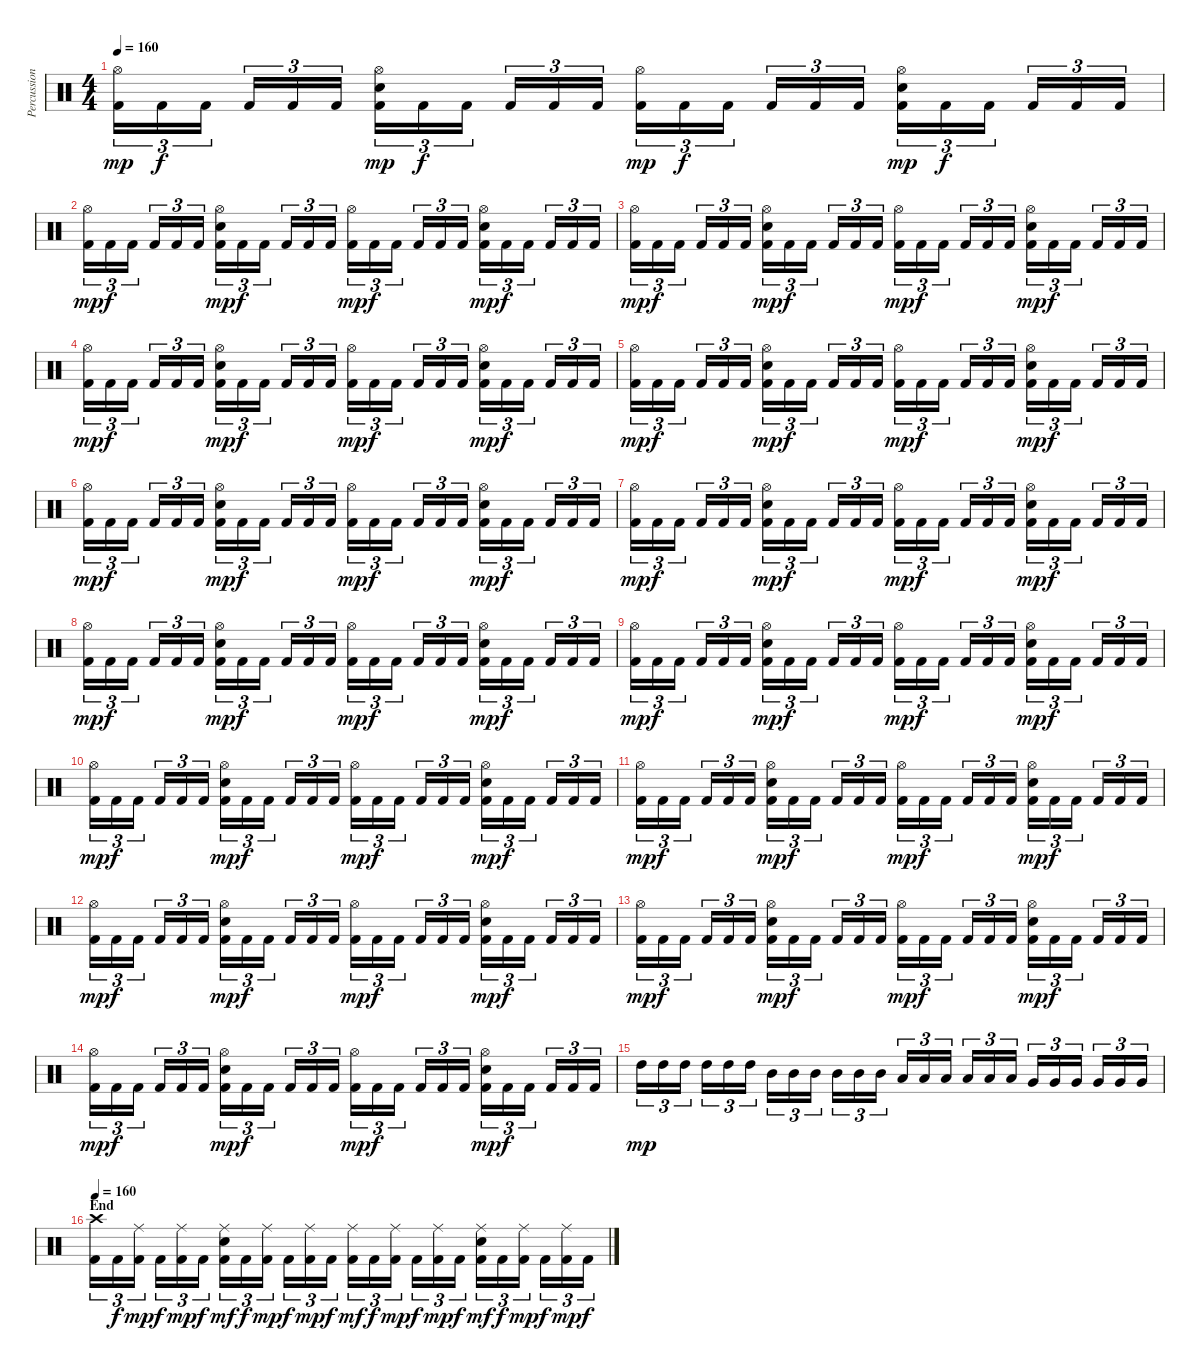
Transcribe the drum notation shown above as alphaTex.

\track ("Percussion" "Percussion") {instrument percussion}
\staff {score}
\articulation defaults
\ts (4 4)
\tempo 160
\clef neutral
\ks c
("Hi-Hat (open)" "Kick (hit) 2").16{tu (3 2) dy mp} "Kick (hit) 2".16{tu (3 2) dy f} "Kick (hit) 2".16{tu (3 2)} "Kick (hit) 2".16{tu (3 2)} "Kick (hit) 2".16{tu (3 2)} "Kick (hit) 2".16{tu (3 2)} ("Hi-Hat (open)" "Electric Snare (hit)" "Kick (hit) 2").16{tu (3 2) dy mp} "Kick (hit) 2".16{tu (3 2) dy f} "Kick (hit) 2".16{tu (3 2)} "Kick (hit) 2".16{tu (3 2)} "Kick (hit) 2".16{tu (3 2)} "Kick (hit) 2".16{tu (3 2)} ("Hi-Hat (open)" "Kick (hit) 2").16{tu (3 2) dy mp} "Kick (hit) 2".16{tu (3 2) dy f} "Kick (hit) 2".16{tu (3 2)} "Kick (hit) 2".16{tu (3 2)} "Kick (hit) 2".16{tu (3 2)} "Kick (hit) 2".16{tu (3 2)} ("Hi-Hat (open)" "Electric Snare (hit)" "Kick (hit) 2").16{tu (3 2) dy mp} "Kick (hit) 2".16{tu (3 2) dy f} "Kick (hit) 2".16{tu (3 2)} "Kick (hit) 2".16{tu (3 2)} "Kick (hit) 2".16{tu (3 2)} "Kick (hit) 2".16{tu (3 2)} |
("Hi-Hat (open)" "Kick (hit) 2").16{tu (3 2) dy mp} "Kick (hit) 2".16{tu (3 2) dy f} "Kick (hit) 2".16{tu (3 2)} "Kick (hit) 2".16{tu (3 2)} "Kick (hit) 2".16{tu (3 2)} "Kick (hit) 2".16{tu (3 2)} ("Hi-Hat (open)" "Electric Snare (hit)" "Kick (hit) 2").16{tu (3 2) dy mp} "Kick (hit) 2".16{tu (3 2) dy f} "Kick (hit) 2".16{tu (3 2)} "Kick (hit) 2".16{tu (3 2)} "Kick (hit) 2".16{tu (3 2)} "Kick (hit) 2".16{tu (3 2)} ("Hi-Hat (open)" "Kick (hit) 2").16{tu (3 2) dy mp} "Kick (hit) 2".16{tu (3 2) dy f} "Kick (hit) 2".16{tu (3 2)} "Kick (hit) 2".16{tu (3 2)} "Kick (hit) 2".16{tu (3 2)} "Kick (hit) 2".16{tu (3 2)} ("Hi-Hat (open)" "Electric Snare (hit)" "Kick (hit) 2").16{tu (3 2) dy mp} "Kick (hit) 2".16{tu (3 2) dy f} "Kick (hit) 2".16{tu (3 2)} "Kick (hit) 2".16{tu (3 2)} "Kick (hit) 2".16{tu (3 2)} "Kick (hit) 2".16{tu (3 2)} |
("Hi-Hat (open)" "Kick (hit) 2").16{tu (3 2) dy mp} "Kick (hit) 2".16{tu (3 2) dy f} "Kick (hit) 2".16{tu (3 2)} "Kick (hit) 2".16{tu (3 2)} "Kick (hit) 2".16{tu (3 2)} "Kick (hit) 2".16{tu (3 2)} ("Hi-Hat (open)" "Electric Snare (hit)" "Kick (hit) 2").16{tu (3 2) dy mp} "Kick (hit) 2".16{tu (3 2) dy f} "Kick (hit) 2".16{tu (3 2)} "Kick (hit) 2".16{tu (3 2)} "Kick (hit) 2".16{tu (3 2)} "Kick (hit) 2".16{tu (3 2)} ("Hi-Hat (open)" "Kick (hit) 2").16{tu (3 2) dy mp} "Kick (hit) 2".16{tu (3 2) dy f} "Kick (hit) 2".16{tu (3 2)} "Kick (hit) 2".16{tu (3 2)} "Kick (hit) 2".16{tu (3 2)} "Kick (hit) 2".16{tu (3 2)} ("Hi-Hat (open)" "Electric Snare (hit)" "Kick (hit) 2").16{tu (3 2) dy mp} "Kick (hit) 2".16{tu (3 2) dy f} "Kick (hit) 2".16{tu (3 2)} "Kick (hit) 2".16{tu (3 2)} "Kick (hit) 2".16{tu (3 2)} "Kick (hit) 2".16{tu (3 2)} |
("Hi-Hat (open)" "Kick (hit) 2").16{tu (3 2) dy mp} "Kick (hit) 2".16{tu (3 2) dy f} "Kick (hit) 2".16{tu (3 2)} "Kick (hit) 2".16{tu (3 2)} "Kick (hit) 2".16{tu (3 2)} "Kick (hit) 2".16{tu (3 2)} ("Hi-Hat (open)" "Electric Snare (hit)" "Kick (hit) 2").16{tu (3 2) dy mp} "Kick (hit) 2".16{tu (3 2) dy f} "Kick (hit) 2".16{tu (3 2)} "Kick (hit) 2".16{tu (3 2)} "Kick (hit) 2".16{tu (3 2)} "Kick (hit) 2".16{tu (3 2)} ("Hi-Hat (open)" "Kick (hit) 2").16{tu (3 2) dy mp} "Kick (hit) 2".16{tu (3 2) dy f} "Kick (hit) 2".16{tu (3 2)} "Kick (hit) 2".16{tu (3 2)} "Kick (hit) 2".16{tu (3 2)} "Kick (hit) 2".16{tu (3 2)} ("Hi-Hat (open)" "Electric Snare (hit)" "Kick (hit) 2").16{tu (3 2) dy mp} "Kick (hit) 2".16{tu (3 2) dy f} "Kick (hit) 2".16{tu (3 2)} "Kick (hit) 2".16{tu (3 2)} "Kick (hit) 2".16{tu (3 2)} "Kick (hit) 2".16{tu (3 2)} |
("Hi-Hat (open)" "Kick (hit) 2").16{tu (3 2) dy mp} "Kick (hit) 2".16{tu (3 2) dy f} "Kick (hit) 2".16{tu (3 2)} "Kick (hit) 2".16{tu (3 2)} "Kick (hit) 2".16{tu (3 2)} "Kick (hit) 2".16{tu (3 2)} ("Hi-Hat (open)" "Electric Snare (hit)" "Kick (hit) 2").16{tu (3 2) dy mp} "Kick (hit) 2".16{tu (3 2) dy f} "Kick (hit) 2".16{tu (3 2)} "Kick (hit) 2".16{tu (3 2)} "Kick (hit) 2".16{tu (3 2)} "Kick (hit) 2".16{tu (3 2)} ("Hi-Hat (open)" "Kick (hit) 2").16{tu (3 2) dy mp} "Kick (hit) 2".16{tu (3 2) dy f} "Kick (hit) 2".16{tu (3 2)} "Kick (hit) 2".16{tu (3 2)} "Kick (hit) 2".16{tu (3 2)} "Kick (hit) 2".16{tu (3 2)} ("Hi-Hat (open)" "Electric Snare (hit)" "Kick (hit) 2").16{tu (3 2) dy mp} "Kick (hit) 2".16{tu (3 2) dy f} "Kick (hit) 2".16{tu (3 2)} "Kick (hit) 2".16{tu (3 2)} "Kick (hit) 2".16{tu (3 2)} "Kick (hit) 2".16{tu (3 2)} |
("Hi-Hat (open)" "Kick (hit) 2").16{tu (3 2) dy mp} "Kick (hit) 2".16{tu (3 2) dy f} "Kick (hit) 2".16{tu (3 2)} "Kick (hit) 2".16{tu (3 2)} "Kick (hit) 2".16{tu (3 2)} "Kick (hit) 2".16{tu (3 2)} ("Hi-Hat (open)" "Electric Snare (hit)" "Kick (hit) 2").16{tu (3 2) dy mp} "Kick (hit) 2".16{tu (3 2) dy f} "Kick (hit) 2".16{tu (3 2)} "Kick (hit) 2".16{tu (3 2)} "Kick (hit) 2".16{tu (3 2)} "Kick (hit) 2".16{tu (3 2)} ("Hi-Hat (open)" "Kick (hit) 2").16{tu (3 2) dy mp} "Kick (hit) 2".16{tu (3 2) dy f} "Kick (hit) 2".16{tu (3 2)} "Kick (hit) 2".16{tu (3 2)} "Kick (hit) 2".16{tu (3 2)} "Kick (hit) 2".16{tu (3 2)} ("Hi-Hat (open)" "Electric Snare (hit)" "Kick (hit) 2").16{tu (3 2) dy mp} "Kick (hit) 2".16{tu (3 2) dy f} "Kick (hit) 2".16{tu (3 2)} "Kick (hit) 2".16{tu (3 2)} "Kick (hit) 2".16{tu (3 2)} "Kick (hit) 2".16{tu (3 2)} |
("Hi-Hat (open)" "Kick (hit) 2").16{tu (3 2) dy mp} "Kick (hit) 2".16{tu (3 2) dy f} "Kick (hit) 2".16{tu (3 2)} "Kick (hit) 2".16{tu (3 2)} "Kick (hit) 2".16{tu (3 2)} "Kick (hit) 2".16{tu (3 2)} ("Hi-Hat (open)" "Electric Snare (hit)" "Kick (hit) 2").16{tu (3 2) dy mp} "Kick (hit) 2".16{tu (3 2) dy f} "Kick (hit) 2".16{tu (3 2)} "Kick (hit) 2".16{tu (3 2)} "Kick (hit) 2".16{tu (3 2)} "Kick (hit) 2".16{tu (3 2)} ("Hi-Hat (open)" "Kick (hit) 2").16{tu (3 2) dy mp} "Kick (hit) 2".16{tu (3 2) dy f} "Kick (hit) 2".16{tu (3 2)} "Kick (hit) 2".16{tu (3 2)} "Kick (hit) 2".16{tu (3 2)} "Kick (hit) 2".16{tu (3 2)} ("Hi-Hat (open)" "Electric Snare (hit)" "Kick (hit) 2").16{tu (3 2) dy mp} "Kick (hit) 2".16{tu (3 2) dy f} "Kick (hit) 2".16{tu (3 2)} "Kick (hit) 2".16{tu (3 2)} "Kick (hit) 2".16{tu (3 2)} "Kick (hit) 2".16{tu (3 2)} |
("Hi-Hat (open)" "Kick (hit) 2").16{tu (3 2) dy mp} "Kick (hit) 2".16{tu (3 2) dy f} "Kick (hit) 2".16{tu (3 2)} "Kick (hit) 2".16{tu (3 2)} "Kick (hit) 2".16{tu (3 2)} "Kick (hit) 2".16{tu (3 2)} ("Hi-Hat (open)" "Electric Snare (hit)" "Kick (hit) 2").16{tu (3 2) dy mp} "Kick (hit) 2".16{tu (3 2) dy f} "Kick (hit) 2".16{tu (3 2)} "Kick (hit) 2".16{tu (3 2)} "Kick (hit) 2".16{tu (3 2)} "Kick (hit) 2".16{tu (3 2)} ("Hi-Hat (open)" "Kick (hit) 2").16{tu (3 2) dy mp} "Kick (hit) 2".16{tu (3 2) dy f} "Kick (hit) 2".16{tu (3 2)} "Kick (hit) 2".16{tu (3 2)} "Kick (hit) 2".16{tu (3 2)} "Kick (hit) 2".16{tu (3 2)} ("Hi-Hat (open)" "Electric Snare (hit)" "Kick (hit) 2").16{tu (3 2) dy mp} "Kick (hit) 2".16{tu (3 2) dy f} "Kick (hit) 2".16{tu (3 2)} "Kick (hit) 2".16{tu (3 2)} "Kick (hit) 2".16{tu (3 2)} "Kick (hit) 2".16{tu (3 2)} |
("Hi-Hat (open)" "Kick (hit) 2").16{tu (3 2) dy mp} "Kick (hit) 2".16{tu (3 2) dy f} "Kick (hit) 2".16{tu (3 2)} "Kick (hit) 2".16{tu (3 2)} "Kick (hit) 2".16{tu (3 2)} "Kick (hit) 2".16{tu (3 2)} ("Hi-Hat (open)" "Electric Snare (hit)" "Kick (hit) 2").16{tu (3 2) dy mp} "Kick (hit) 2".16{tu (3 2) dy f} "Kick (hit) 2".16{tu (3 2)} "Kick (hit) 2".16{tu (3 2)} "Kick (hit) 2".16{tu (3 2)} "Kick (hit) 2".16{tu (3 2)} ("Hi-Hat (open)" "Kick (hit) 2").16{tu (3 2) dy mp} "Kick (hit) 2".16{tu (3 2) dy f} "Kick (hit) 2".16{tu (3 2)} "Kick (hit) 2".16{tu (3 2)} "Kick (hit) 2".16{tu (3 2)} "Kick (hit) 2".16{tu (3 2)} ("Hi-Hat (open)" "Electric Snare (hit)" "Kick (hit) 2").16{tu (3 2) dy mp} "Kick (hit) 2".16{tu (3 2) dy f} "Kick (hit) 2".16{tu (3 2)} "Kick (hit) 2".16{tu (3 2)} "Kick (hit) 2".16{tu (3 2)} "Kick (hit) 2".16{tu (3 2)} |
("Hi-Hat (open)" "Kick (hit) 2").16{tu (3 2) dy mp} "Kick (hit) 2".16{tu (3 2) dy f} "Kick (hit) 2".16{tu (3 2)} "Kick (hit) 2".16{tu (3 2)} "Kick (hit) 2".16{tu (3 2)} "Kick (hit) 2".16{tu (3 2)} ("Hi-Hat (open)" "Electric Snare (hit)" "Kick (hit) 2").16{tu (3 2) dy mp} "Kick (hit) 2".16{tu (3 2) dy f} "Kick (hit) 2".16{tu (3 2)} "Kick (hit) 2".16{tu (3 2)} "Kick (hit) 2".16{tu (3 2)} "Kick (hit) 2".16{tu (3 2)} ("Hi-Hat (open)" "Kick (hit) 2").16{tu (3 2) dy mp} "Kick (hit) 2".16{tu (3 2) dy f} "Kick (hit) 2".16{tu (3 2)} "Kick (hit) 2".16{tu (3 2)} "Kick (hit) 2".16{tu (3 2)} "Kick (hit) 2".16{tu (3 2)} ("Hi-Hat (open)" "Electric Snare (hit)" "Kick (hit) 2").16{tu (3 2) dy mp} "Kick (hit) 2".16{tu (3 2) dy f} "Kick (hit) 2".16{tu (3 2)} "Kick (hit) 2".16{tu (3 2)} "Kick (hit) 2".16{tu (3 2)} "Kick (hit) 2".16{tu (3 2)} |
("Hi-Hat (open)" "Kick (hit) 2").16{tu (3 2) dy mp} "Kick (hit) 2".16{tu (3 2) dy f} "Kick (hit) 2".16{tu (3 2)} "Kick (hit) 2".16{tu (3 2)} "Kick (hit) 2".16{tu (3 2)} "Kick (hit) 2".16{tu (3 2)} ("Hi-Hat (open)" "Electric Snare (hit)" "Kick (hit) 2").16{tu (3 2) dy mp} "Kick (hit) 2".16{tu (3 2) dy f} "Kick (hit) 2".16{tu (3 2)} "Kick (hit) 2".16{tu (3 2)} "Kick (hit) 2".16{tu (3 2)} "Kick (hit) 2".16{tu (3 2)} ("Hi-Hat (open)" "Kick (hit) 2").16{tu (3 2) dy mp} "Kick (hit) 2".16{tu (3 2) dy f} "Kick (hit) 2".16{tu (3 2)} "Kick (hit) 2".16{tu (3 2)} "Kick (hit) 2".16{tu (3 2)} "Kick (hit) 2".16{tu (3 2)} ("Hi-Hat (open)" "Electric Snare (hit)" "Kick (hit) 2").16{tu (3 2) dy mp} "Kick (hit) 2".16{tu (3 2) dy f} "Kick (hit) 2".16{tu (3 2)} "Kick (hit) 2".16{tu (3 2)} "Kick (hit) 2".16{tu (3 2)} "Kick (hit) 2".16{tu (3 2)} |
("Hi-Hat (open)" "Kick (hit) 2").16{tu (3 2) dy mp} "Kick (hit) 2".16{tu (3 2) dy f} "Kick (hit) 2".16{tu (3 2)} "Kick (hit) 2".16{tu (3 2)} "Kick (hit) 2".16{tu (3 2)} "Kick (hit) 2".16{tu (3 2)} ("Hi-Hat (open)" "Electric Snare (hit)" "Kick (hit) 2").16{tu (3 2) dy mp} "Kick (hit) 2".16{tu (3 2) dy f} "Kick (hit) 2".16{tu (3 2)} "Kick (hit) 2".16{tu (3 2)} "Kick (hit) 2".16{tu (3 2)} "Kick (hit) 2".16{tu (3 2)} ("Hi-Hat (open)" "Kick (hit) 2").16{tu (3 2) dy mp} "Kick (hit) 2".16{tu (3 2) dy f} "Kick (hit) 2".16{tu (3 2)} "Kick (hit) 2".16{tu (3 2)} "Kick (hit) 2".16{tu (3 2)} "Kick (hit) 2".16{tu (3 2)} ("Hi-Hat (open)" "Electric Snare (hit)" "Kick (hit) 2").16{tu (3 2) dy mp} "Kick (hit) 2".16{tu (3 2) dy f} "Kick (hit) 2".16{tu (3 2)} "Kick (hit) 2".16{tu (3 2)} "Kick (hit) 2".16{tu (3 2)} "Kick (hit) 2".16{tu (3 2)} |
("Hi-Hat (open)" "Kick (hit) 2").16{tu (3 2) dy mp} "Kick (hit) 2".16{tu (3 2) dy f} "Kick (hit) 2".16{tu (3 2)} "Kick (hit) 2".16{tu (3 2)} "Kick (hit) 2".16{tu (3 2)} "Kick (hit) 2".16{tu (3 2)} ("Hi-Hat (open)" "Electric Snare (hit)" "Kick (hit) 2").16{tu (3 2) dy mp} "Kick (hit) 2".16{tu (3 2) dy f} "Kick (hit) 2".16{tu (3 2)} "Kick (hit) 2".16{tu (3 2)} "Kick (hit) 2".16{tu (3 2)} "Kick (hit) 2".16{tu (3 2)} ("Hi-Hat (open)" "Kick (hit) 2").16{tu (3 2) dy mp} "Kick (hit) 2".16{tu (3 2) dy f} "Kick (hit) 2".16{tu (3 2)} "Kick (hit) 2".16{tu (3 2)} "Kick (hit) 2".16{tu (3 2)} "Kick (hit) 2".16{tu (3 2)} ("Hi-Hat (open)" "Electric Snare (hit)" "Kick (hit) 2").16{tu (3 2) dy mp} "Kick (hit) 2".16{tu (3 2) dy f} "Kick (hit) 2".16{tu (3 2)} "Kick (hit) 2".16{tu (3 2)} "Kick (hit) 2".16{tu (3 2)} "Kick (hit) 2".16{tu (3 2)} |
("Hi-Hat (open)" "Kick (hit) 2").16{tu (3 2) dy mp} "Kick (hit) 2".16{tu (3 2) dy f} "Kick (hit) 2".16{tu (3 2)} "Kick (hit) 2".16{tu (3 2)} "Kick (hit) 2".16{tu (3 2)} "Kick (hit) 2".16{tu (3 2)} ("Hi-Hat (open)" "Electric Snare (hit)" "Kick (hit) 2").16{tu (3 2) dy mp} "Kick (hit) 2".16{tu (3 2) dy f} "Kick (hit) 2".16{tu (3 2)} "Kick (hit) 2".16{tu (3 2)} "Kick (hit) 2".16{tu (3 2)} "Kick (hit) 2".16{tu (3 2)} ("Hi-Hat (open)" "Kick (hit) 2").16{tu (3 2) dy mp} "Kick (hit) 2".16{tu (3 2) dy f} "Kick (hit) 2".16{tu (3 2)} "Kick (hit) 2".16{tu (3 2)} "Kick (hit) 2".16{tu (3 2)} "Kick (hit) 2".16{tu (3 2)} ("Hi-Hat (open)" "Electric Snare (hit)" "Kick (hit) 2").16{tu (3 2) dy mp} "Kick (hit) 2".16{tu (3 2) dy f} "Kick (hit) 2".16{tu (3 2)} "Kick (hit) 2".16{tu (3 2)} "Kick (hit) 2".16{tu (3 2)} "Kick (hit) 2".16{tu (3 2)} |
"High Tom (hit)".16{tu (3 2) dy mp} "High Tom (hit)".16{tu (3 2)} "High Tom (hit)".16{tu (3 2)} "High Tom (hit)".16{tu (3 2)} "High Tom (hit)".16{tu (3 2)} "High Tom (hit)".16{tu (3 2)} "Mid Tom (hit)".16{tu (3 2)} "Mid Tom (hit)".16{tu (3 2)} "Mid Tom (hit)".16{tu (3 2)} "Mid Tom (hit)".16{tu (3 2)} "Mid Tom (hit)".16{tu (3 2)} "Mid Tom (hit)".16{tu (3 2)} "Low Tom (hit)".16{tu (3 2)} "Low Tom (hit)".16{tu (3 2)} "Low Tom (hit)".16{tu (3 2)} "Low Tom (hit)".16{tu (3 2)} "Low Tom (hit)".16{tu (3 2)} "Low Tom (hit)".16{tu (3 2)} "Very Low Tom (hit)".16{tu (3 2)} "Very Low Tom (hit)".16{tu (3 2)} "Very Low Tom (hit)".16{tu (3 2)} "Very Low Tom (hit)".16{tu (3 2)} "Very Low Tom (hit)".16{tu (3 2)} "Very Low Tom (hit)".16{tu (3 2)} |
\section ("" "End")
\tempo 160
("Crash high (hit)" "Kick (hit) 2").16{tu (3 2)} "Kick (hit) 2".16{tu (3 2) dy f} ("Ride (middle)" "Kick (hit) 2").16{tu (3 2) dy mp} "Kick (hit) 2".16{tu (3 2) dy f} ("Ride (middle)" "Kick (hit) 2").16{tu (3 2) dy mp} "Kick (hit) 2".16{tu (3 2) dy f} ("Ride (middle)" "Electric Snare (hit)" "Kick (hit) 2").16{tu (3 2) dy mf} "Kick (hit) 2".16{tu (3 2) dy f} ("Ride (middle)" "Kick (hit) 2").16{tu (3 2) dy mp} "Kick (hit) 2".16{tu (3 2) dy f} ("Ride (middle)" "Kick (hit) 2").16{tu (3 2) dy mp} "Kick (hit) 2".16{tu (3 2) dy f} ("Ride (middle)" "Kick (hit) 2").16{tu (3 2) dy mf} "Kick (hit) 2".16{tu (3 2) dy f} ("Ride (middle)" "Kick (hit) 2").16{tu (3 2) dy mp} "Kick (hit) 2".16{tu (3 2) dy f} ("Ride (middle)" "Kick (hit) 2").16{tu (3 2) dy mp} "Kick (hit) 2".16{tu (3 2) dy f} ("Ride (middle)" "Electric Snare (hit)" "Kick (hit) 2").16{tu (3 2) dy mf} "Kick (hit) 2".16{tu (3 2) dy f} ("Ride (middle)" "Kick (hit) 2").16{tu (3 2) dy mp} "Kick (hit) 2".16{tu (3 2) dy f} ("Ride (middle)" "Kick (hit) 2").16{tu (3 2) dy mp} "Kick (hit) 2".16{tu (3 2) dy f}
